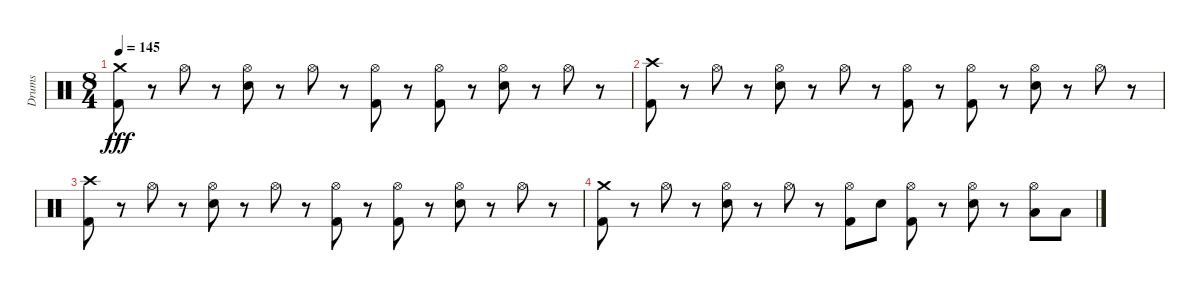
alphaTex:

\track ("Drums" "Drums") {instrument percussion}
\staff {score}
\articulation defaults
\ts (8 4)
\tempo 145
\clef neutral
\ks c
("Crash medium (hit)" "Kick (hit) 2").8{dy fff} r.8 "Hi-Hat (open)".8 r.8 ("Hi-Hat (open)" "Snare (hit) 2").8 r.8 "Hi-Hat (open)".8 r.8 ("Hi-Hat (open)" "Kick (hit) 2").8 r.8 ("Hi-Hat (open)" "Kick (hit) 2").8 r.8 ("Hi-Hat (open)" "Snare (hit) 2").8 r.8 "Hi-Hat (open)".8 r.8 |
("Crash high (hit)" "Kick (hit) 2").8 r.8 "Hi-Hat (open)".8 r.8 ("Hi-Hat (open)" "Snare (hit) 2").8 r.8 "Hi-Hat (open)".8 r.8 ("Hi-Hat (open)" "Kick (hit) 2").8 r.8 ("Hi-Hat (open)" "Kick (hit) 2").8 r.8 ("Hi-Hat (open)" "Snare (hit) 2").8 r.8 "Hi-Hat (open)".8 r.8 |
("Crash high (hit)" "Kick (hit) 2").8 r.8 "Hi-Hat (open)".8 r.8 ("Hi-Hat (open)" "Snare (hit) 2").8 r.8 "Hi-Hat (open)".8 r.8 ("Hi-Hat (open)" "Kick (hit) 2").8 r.8 ("Hi-Hat (open)" "Kick (hit) 2").8 r.8 ("Hi-Hat (open)" "Snare (hit) 2").8 r.8 "Hi-Hat (open)".8 r.8 |
("Crash medium (hit)" "Kick (hit) 2").8 r.8 "Hi-Hat (open)".8 r.8 ("Hi-Hat (open)" "Snare (hit) 2").8 r.8 "Hi-Hat (open)".8 r.8 ("Hi-Hat (open)" "Kick (hit) 2").8 "Snare (hit) 2".8 ("Hi-Hat (open)" "Kick (hit) 2").8 r.8 ("Hi-Hat (open)" "Snare (hit) 2").8 r.8 ("Hi-Hat (open)" "Low Tom (hit)").8 "Low Tom (hit)".8
